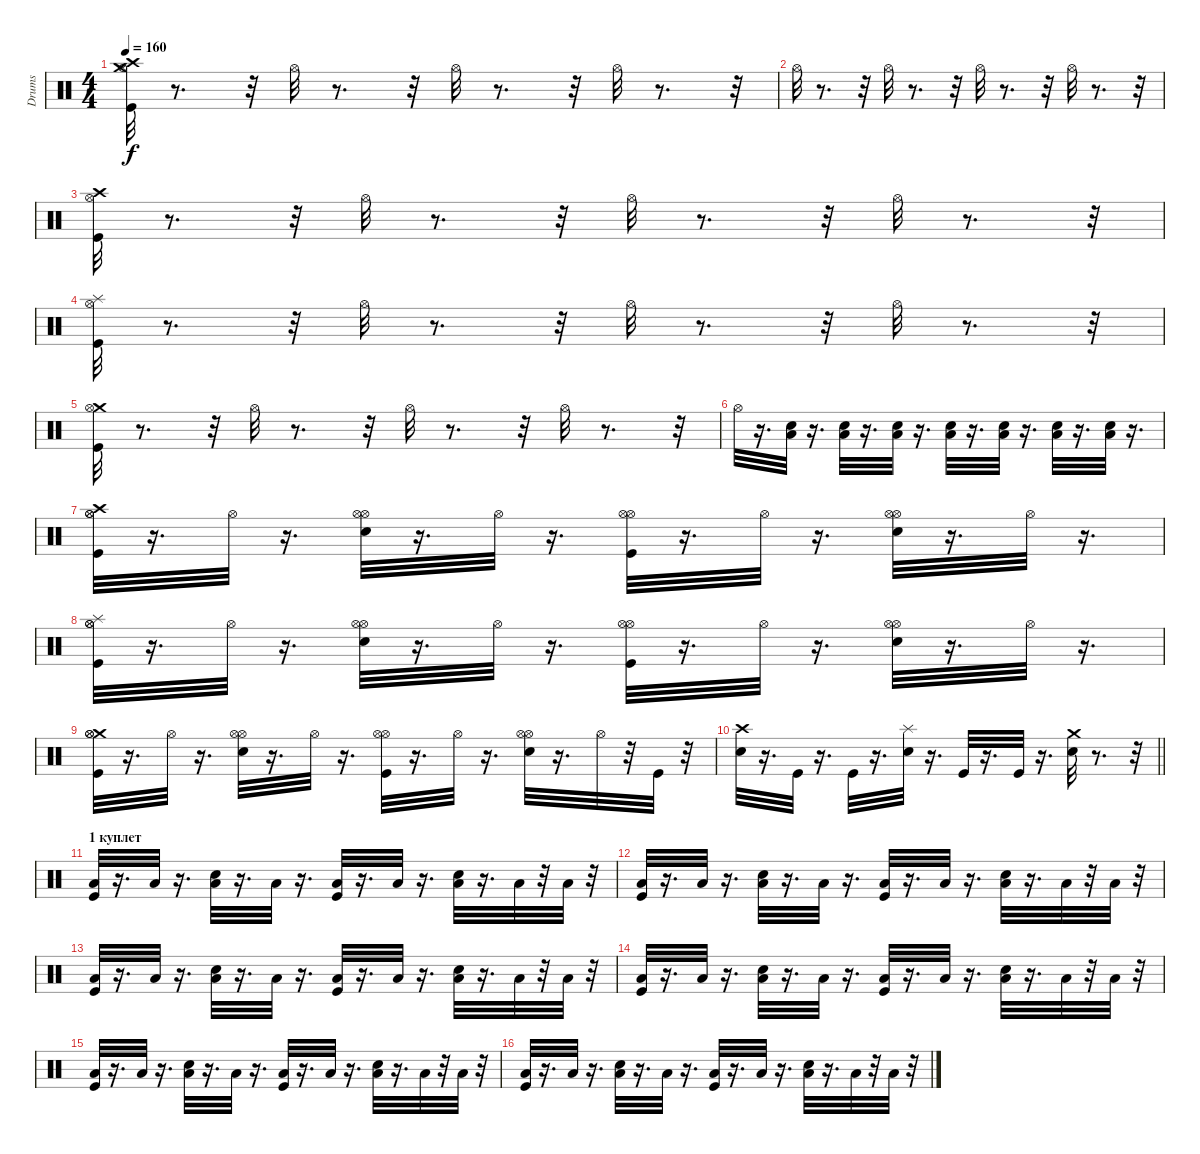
\track ("Drums" "Drums") {instrument percussion}
\staff {score}
\articulation defaults
\ts (4 4)
\tempo 160
\clef neutral
\ks c
("Hi-Hat (open)" "Crash medium (hit)" "Crash high (hit)" "Kick (hit)").32{dy f} r.8{d} r.32 "Hi-Hat (open)".32 r.8{d} r.32 "Hi-Hat (open)".32 r.8{d} r.32 "Hi-Hat (open)".32 r.8{d} r.32 |
"Hi-Hat (open)".32 r.8{d} r.32 "Hi-Hat (open)".32 r.8{d} r.32 "Hi-Hat (open)".32 r.8{d} r.32 "Hi-Hat (open)".32 r.8{d} r.32 |
("Kick (hit)" "Crash high (hit)" "Hi-Hat (open)").32 r.8{d} r.32 "Hi-Hat (open)".32 r.8{d} r.32 "Hi-Hat (open)".32 r.8{d} r.32 "Hi-Hat (open)".32 r.8{d} r.32 |
("Kick (hit)" "Splash (hit)" "Hi-Hat (open)").32 r.8{d} r.32 "Hi-Hat (open)".32 r.8{d} r.32 "Hi-Hat (open)".32 r.8{d} r.32 "Hi-Hat (open)".32 r.8{d} r.32 |
("Kick (hit)" "Crash medium (hit)" "Hi-Hat (open)").32 r.8{d} r.32 "Hi-Hat (open)".32 r.8{d} r.32 "Hi-Hat (open)".32 r.8{d} r.32 "Hi-Hat (open)".32 r.8{d} r.32 |
"Hi-Hat (open)".32 r.16{d} ("Snare (hit) 2" "Low Floor Tom (hit)").32 r.16{d} ("Snare (hit) 2" "Low Floor Tom (hit)").32 r.16{d} ("Low Floor Tom (hit)" "Snare (hit) 2").32 r.16{d} ("Snare (hit) 2" "Low Floor Tom (hit)").32 r.16{d} ("Snare (hit) 2" "Low Floor Tom (hit)").32 r.16{d} ("Low Floor Tom (hit)" "Snare (hit) 2").32 r.16{d} ("Snare (hit) 2" "Low Floor Tom (hit)").32 r.16{d} |
("Kick (hit)" "Crash high (hit)" "Hi-Hat (open)" "Hi-Hat (open)").32 r.16{d} "Hi-Hat (open)".32 r.16{d} ("Snare (hit) 2" "Hi-Hat (open)" "Hi-Hat (open)").32 r.16{d} "Hi-Hat (open)".32 r.16{d} ("Kick (hit)" "Hi-Hat (open)" "Hi-Hat (open)").32 r.16{d} "Hi-Hat (open)".32 r.16{d} ("Snare (hit) 2" "Hi-Hat (open)" "Hi-Hat (open)").32 r.16{d} "Hi-Hat (open)".32 r.16{d} |
("Kick (hit)" "Splash (hit)" "Hi-Hat (open)" "Hi-Hat (open)").32 r.16{d} "Hi-Hat (open)".32 r.16{d} ("Snare (hit) 2" "Hi-Hat (open)" "Hi-Hat (open)").32 r.16{d} "Hi-Hat (open)".32 r.16{d} ("Kick (hit)" "Hi-Hat (open)" "Hi-Hat (open)").32 r.16{d} "Hi-Hat (open)".32 r.16{d} ("Snare (hit) 2" "Hi-Hat (open)" "Hi-Hat (open)").32 r.16{d} "Hi-Hat (open)".32 r.16{d} |
("Kick (hit)" "Crash medium (hit)" "Hi-Hat (open)" "Hi-Hat (open)").32 r.16{d} "Hi-Hat (open)".32 r.16{d} ("Snare (hit) 2" "Hi-Hat (open)" "Hi-Hat (open)").32 r.16{d} "Hi-Hat (open)".32 r.16{d} ("Kick (hit)" "Hi-Hat (open)" "Hi-Hat (open)").32 r.16{d} "Hi-Hat (open)".32 r.16{d} ("Snare (hit) 2" "Hi-Hat (open)" "Hi-Hat (open)").32 r.16{d} "Hi-Hat (open)".32 r.32 "Kick (hit)".32 r.32 |
\barLineRight lightlight
("Crash high (hit)" "Snare (hit) 2").32 r.16{d} "Kick (hit)".32 r.16{d} "Kick (hit)".32 r.16{d} ("Splash (hit)" "Snare (hit) 2").32 r.16{d} "Kick (hit)".32 r.16{d} "Kick (hit)".32 r.16{d} ("Crash medium (hit)" "Snare (hit) 2").32 r.8{d} r.32 |
\section ("" "1 куплет")
("Kick (hit)" "Low Floor Tom (hit)").32 r.16{d} "Low Floor Tom (hit)".32 r.16{d} ("Low Floor Tom (hit)" "Snare (hit) 2").32 r.16{d} "Low Floor Tom (hit)".32 r.16{d} ("Kick (hit)" "Low Floor Tom (hit)").32 r.16{d} "Low Floor Tom (hit)".32 r.16{d} ("Low Floor Tom (hit)" "Snare (hit) 2").32 r.16{d} "Low Floor Tom (hit)".32 r.32 "Low Floor Tom (hit)".32 r.32 |
("Kick (hit)" "Low Floor Tom (hit)").32 r.16{d} "Low Floor Tom (hit)".32 r.16{d} ("Low Floor Tom (hit)" "Snare (hit) 2").32 r.16{d} "Low Floor Tom (hit)".32 r.16{d} ("Low Floor Tom (hit)" "Kick (hit)").32 r.16{d} "Low Floor Tom (hit)".32 r.16{d} ("Snare (hit) 2" "Low Floor Tom (hit)").32 r.16{d} "Low Floor Tom (hit)".32 r.32 "Low Floor Tom (hit)".32 r.32 |
("Kick (hit)" "Low Floor Tom (hit)").32 r.16{d} "Low Floor Tom (hit)".32 r.16{d} ("Low Floor Tom (hit)" "Snare (hit) 2").32 r.16{d} "Low Floor Tom (hit)".32 r.16{d} ("Kick (hit)" "Low Floor Tom (hit)").32 r.16{d} "Low Floor Tom (hit)".32 r.16{d} ("Low Floor Tom (hit)" "Snare (hit) 2").32 r.16{d} "Low Floor Tom (hit)".32 r.32 "Low Floor Tom (hit)".32 r.32 |
("Kick (hit)" "Low Floor Tom (hit)").32 r.16{d} "Low Floor Tom (hit)".32 r.16{d} ("Low Floor Tom (hit)" "Snare (hit) 2").32 r.16{d} "Low Floor Tom (hit)".32 r.16{d} ("Low Floor Tom (hit)" "Kick (hit)").32 r.16{d} "Low Floor Tom (hit)".32 r.16{d} ("Snare (hit) 2" "Low Floor Tom (hit)").32 r.16{d} "Low Floor Tom (hit)".32 r.32 "Low Floor Tom (hit)".32 r.32 |
("Kick (hit)" "Low Floor Tom (hit)").32 r.16{d} "Low Floor Tom (hit)".32 r.16{d} ("Low Floor Tom (hit)" "Snare (hit) 2").32 r.16{d} "Low Floor Tom (hit)".32 r.16{d} ("Kick (hit)" "Low Floor Tom (hit)").32 r.16{d} "Low Floor Tom (hit)".32 r.16{d} ("Low Floor Tom (hit)" "Snare (hit) 2").32 r.16{d} "Low Floor Tom (hit)".32 r.32 "Low Floor Tom (hit)".32 r.32 |
("Kick (hit)" "Low Floor Tom (hit)").32 r.16{d} "Low Floor Tom (hit)".32 r.16{d} ("Low Floor Tom (hit)" "Snare (hit) 2").32 r.16{d} "Low Floor Tom (hit)".32 r.16{d} ("Low Floor Tom (hit)" "Kick (hit)").32 r.16{d} "Low Floor Tom (hit)".32 r.16{d} ("Snare (hit) 2" "Low Floor Tom (hit)").32 r.16{d} "Low Floor Tom (hit)".32 r.32 "Low Floor Tom (hit)".32 r.32
